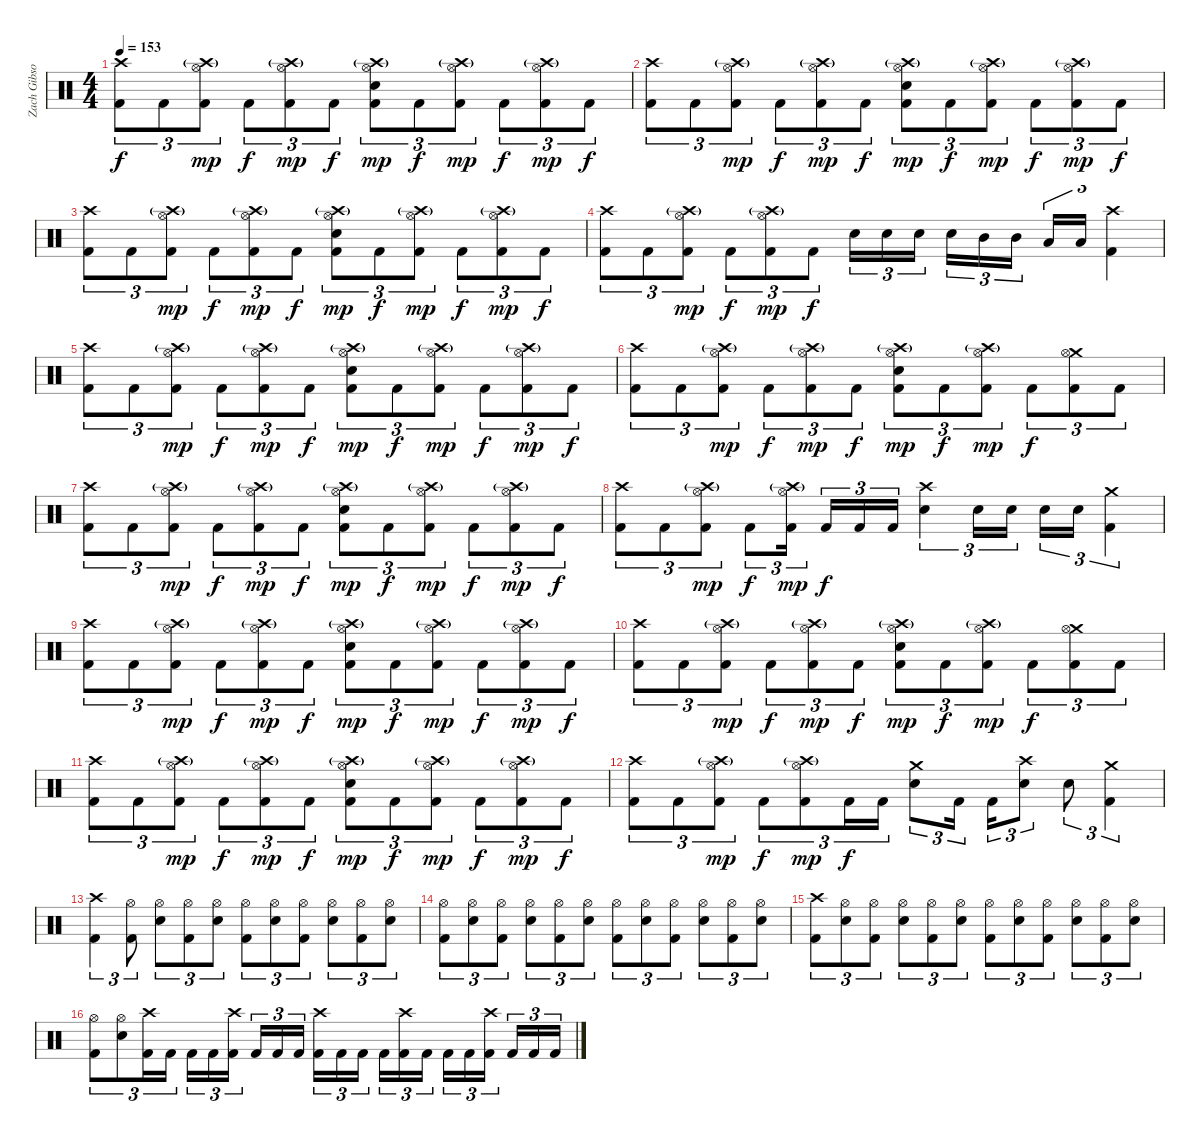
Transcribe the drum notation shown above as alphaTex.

\track ("Zach Gibson (Drums)" "Zach Gibso") {instrument percussion}
\staff {score}
\articulation defaults
\ts (4 4)
\tempo 153
\clef neutral
\ks c
("Crash high (hit)" "Kick (hit) 2").8{tu (3 2) dy f} "Kick (hit) 2".8{tu (3 2)} ("Crash high (hit)"{g} "Hi-Hat (open)" "Kick (hit) 2").8{tu (3 2) dy mp} "Kick (hit) 2".8{tu (3 2) dy f} ("Crash high (hit)"{g} "Hi-Hat (open)" "Kick (hit) 2").8{tu (3 2) dy mp} "Kick (hit) 2".8{tu (3 2) dy f} ("Crash high (hit)"{g} "Snare (hit) 2" "Hi-Hat (open)" "Kick (hit) 2").8{tu (3 2) dy mp} "Kick (hit) 2".8{tu (3 2) dy f} ("Crash high (hit)"{g} "Hi-Hat (open)" "Kick (hit) 2").8{tu (3 2) dy mp} "Kick (hit) 2".8{tu (3 2) dy f} ("Crash high (hit)"{g} "Hi-Hat (open)" "Kick (hit) 2").8{tu (3 2) dy mp} "Kick (hit) 2".8{tu (3 2) dy f} |
("Crash high (hit)" "Kick (hit) 2").8{tu (3 2)} "Kick (hit) 2".8{tu (3 2)} ("Crash high (hit)"{g} "Hi-Hat (open)" "Kick (hit) 2").8{tu (3 2) dy mp} "Kick (hit) 2".8{tu (3 2) dy f} ("Crash high (hit)"{g} "Hi-Hat (open)" "Kick (hit) 2").8{tu (3 2) dy mp} "Kick (hit) 2".8{tu (3 2) dy f} ("Crash high (hit)"{g} "Snare (hit) 2" "Hi-Hat (open)" "Kick (hit) 2").8{tu (3 2) dy mp} "Kick (hit) 2".8{tu (3 2) dy f} ("Crash high (hit)"{g} "Hi-Hat (open)" "Kick (hit) 2").8{tu (3 2) dy mp} "Kick (hit) 2".8{tu (3 2) dy f} ("Crash high (hit)"{g} "Hi-Hat (open)" "Kick (hit) 2").8{tu (3 2) dy mp} "Kick (hit) 2".8{tu (3 2) dy f} |
("Crash high (hit)" "Kick (hit) 2").8{tu (3 2)} "Kick (hit) 2".8{tu (3 2)} ("Crash high (hit)"{g} "Hi-Hat (open)" "Kick (hit) 2").8{tu (3 2) dy mp} "Kick (hit) 2".8{tu (3 2) dy f} ("Crash high (hit)"{g} "Hi-Hat (open)" "Kick (hit) 2").8{tu (3 2) dy mp} "Kick (hit) 2".8{tu (3 2) dy f} ("Crash high (hit)"{g} "Snare (hit) 2" "Hi-Hat (open)" "Kick (hit) 2").8{tu (3 2) dy mp} "Kick (hit) 2".8{tu (3 2) dy f} ("Crash high (hit)"{g} "Hi-Hat (open)" "Kick (hit) 2").8{tu (3 2) dy mp} "Kick (hit) 2".8{tu (3 2) dy f} ("Crash high (hit)"{g} "Hi-Hat (open)" "Kick (hit) 2").8{tu (3 2) dy mp} "Kick (hit) 2".8{tu (3 2) dy f} |
("Crash high (hit)" "Kick (hit) 2").8{tu (3 2)} "Kick (hit) 2".8{tu (3 2)} ("Crash high (hit)"{g} "Hi-Hat (open)" "Kick (hit) 2").8{tu (3 2) dy mp} "Kick (hit) 2".8{tu (3 2) dy f} ("Crash high (hit)"{g} "Hi-Hat (open)" "Kick (hit) 2").8{tu (3 2) dy mp} "Kick (hit) 2".8{tu (3 2) dy f} "Snare (hit) 2".16{tu (3 2)} "Snare (hit) 2".16{tu (3 2)} "Snare (hit) 2".16{tu (3 2)} "Snare (hit) 2".16{tu (3 2)} "Mid Tom (hit)".16{tu (3 2)} "Mid Tom (hit)".16{tu (3 2)} "Low Tom (hit)".16{tu (3 2)} "Low Tom (hit)".16{tu (3 2)} ("Crash high (hit)" "Kick (hit) 2").4{tu (3 2)} |
("Crash high (hit)" "Kick (hit) 2").8{tu (3 2)} "Kick (hit) 2".8{tu (3 2)} ("Crash high (hit)"{g} "Hi-Hat (open)" "Kick (hit) 2").8{tu (3 2) dy mp} "Kick (hit) 2".8{tu (3 2) dy f} ("Crash high (hit)"{g} "Hi-Hat (open)" "Kick (hit) 2").8{tu (3 2) dy mp} "Kick (hit) 2".8{tu (3 2) dy f} ("Crash high (hit)"{g} "Snare (hit) 2" "Hi-Hat (open)" "Kick (hit) 2").8{tu (3 2) dy mp} "Kick (hit) 2".8{tu (3 2) dy f} ("Crash high (hit)"{g} "Hi-Hat (open)" "Kick (hit) 2").8{tu (3 2) dy mp} "Kick (hit) 2".8{tu (3 2) dy f} ("Crash high (hit)"{g} "Hi-Hat (open)" "Kick (hit) 2").8{tu (3 2) dy mp} "Kick (hit) 2".8{tu (3 2) dy f} |
("Crash high (hit)" "Kick (hit) 2").8{tu (3 2)} "Kick (hit) 2".8{tu (3 2)} ("Crash high (hit)"{g} "Hi-Hat (open)" "Kick (hit) 2").8{tu (3 2) dy mp} "Kick (hit) 2".8{tu (3 2) dy f} ("Crash high (hit)"{g} "Hi-Hat (open)" "Kick (hit) 2").8{tu (3 2) dy mp} "Kick (hit) 2".8{tu (3 2) dy f} ("Crash high (hit)"{g} "Snare (hit) 2" "Hi-Hat (open)" "Kick (hit) 2").8{tu (3 2) dy mp} "Kick (hit) 2".8{tu (3 2) dy f} ("Crash high (hit)"{g} "Hi-Hat (open)" "Kick (hit) 2").8{tu (3 2) dy mp} "Kick (hit) 2".8{tu (3 2) dy f} ("Crash medium (hit)" "Hi-Hat (open)" "Kick (hit) 2").8{tu (3 2)} "Kick (hit) 2".8{tu (3 2)} |
("Crash high (hit)" "Kick (hit) 2").8{tu (3 2)} "Kick (hit) 2".8{tu (3 2)} ("Crash high (hit)"{g} "Hi-Hat (open)" "Kick (hit) 2").8{tu (3 2) dy mp} "Kick (hit) 2".8{tu (3 2) dy f} ("Crash high (hit)"{g} "Hi-Hat (open)" "Kick (hit) 2").8{tu (3 2) dy mp} "Kick (hit) 2".8{tu (3 2) dy f} ("Crash high (hit)"{g} "Snare (hit) 2" "Hi-Hat (open)" "Kick (hit) 2").8{tu (3 2) dy mp} "Kick (hit) 2".8{tu (3 2) dy f} ("Crash high (hit)"{g} "Hi-Hat (open)" "Kick (hit) 2").8{tu (3 2) dy mp} "Kick (hit) 2".8{tu (3 2) dy f} ("Crash high (hit)"{g} "Hi-Hat (open)" "Kick (hit) 2").8{tu (3 2) dy mp} "Kick (hit) 2".8{tu (3 2) dy f} |
("Crash high (hit)" "Kick (hit) 2").8{tu (3 2)} "Kick (hit) 2".8{tu (3 2)} ("Crash high (hit)"{g} "Hi-Hat (open)" "Kick (hit) 2").8{tu (3 2) dy mp} "Kick (hit) 2".8{tu (3 2) dy f} ("Crash high (hit)"{g} "Hi-Hat (open)" "Kick (hit) 2").16{tu (3 2) dy mp} "Kick (hit) 2".16{tu (3 2) dy f} "Kick (hit) 2".16{tu (3 2)} "Kick (hit) 2".16{tu (3 2)} ("Crash high (hit)" "Snare (hit) 2").4{tu (3 2)} "Snare (hit) 2".16{tu (3 2)} "Snare (hit) 2".16{tu (3 2)} "Snare (hit) 2".16{tu (3 2)} "Snare (hit) 2".16{tu (3 2)} ("Crash medium (hit)" "Kick (hit) 2").4{tu (3 2)} |
("Crash high (hit)" "Kick (hit) 2").8{tu (3 2)} "Kick (hit) 2".8{tu (3 2)} ("Crash high (hit)"{g} "Hi-Hat (open)" "Kick (hit) 2").8{tu (3 2) dy mp} "Kick (hit) 2".8{tu (3 2) dy f} ("Crash high (hit)"{g} "Hi-Hat (open)" "Kick (hit) 2").8{tu (3 2) dy mp} "Kick (hit) 2".8{tu (3 2) dy f} ("Crash high (hit)"{g} "Snare (hit) 2" "Hi-Hat (open)" "Kick (hit) 2").8{tu (3 2) dy mp} "Kick (hit) 2".8{tu (3 2) dy f} ("Crash high (hit)"{g} "Hi-Hat (open)" "Kick (hit) 2").8{tu (3 2) dy mp} "Kick (hit) 2".8{tu (3 2) dy f} ("Crash high (hit)"{g} "Hi-Hat (open)" "Kick (hit) 2").8{tu (3 2) dy mp} "Kick (hit) 2".8{tu (3 2) dy f} |
("Crash high (hit)" "Kick (hit) 2").8{tu (3 2)} "Kick (hit) 2".8{tu (3 2)} ("Crash high (hit)"{g} "Hi-Hat (open)" "Kick (hit) 2").8{tu (3 2) dy mp} "Kick (hit) 2".8{tu (3 2) dy f} ("Crash high (hit)"{g} "Hi-Hat (open)" "Kick (hit) 2").8{tu (3 2) dy mp} "Kick (hit) 2".8{tu (3 2) dy f} ("Crash high (hit)"{g} "Snare (hit) 2" "Hi-Hat (open)" "Kick (hit) 2").8{tu (3 2) dy mp} "Kick (hit) 2".8{tu (3 2) dy f} ("Crash high (hit)"{g} "Hi-Hat (open)" "Kick (hit) 2").8{tu (3 2) dy mp} "Kick (hit) 2".8{tu (3 2) dy f} ("Crash medium (hit)" "Hi-Hat (open)" "Kick (hit) 2").8{tu (3 2)} "Kick (hit) 2".8{tu (3 2)} |
("Crash high (hit)" "Kick (hit) 2").8{tu (3 2)} "Kick (hit) 2".8{tu (3 2)} ("Crash high (hit)"{g} "Hi-Hat (open)" "Kick (hit) 2").8{tu (3 2) dy mp} "Kick (hit) 2".8{tu (3 2) dy f} ("Crash high (hit)"{g} "Hi-Hat (open)" "Kick (hit) 2").8{tu (3 2) dy mp} "Kick (hit) 2".8{tu (3 2) dy f} ("Crash high (hit)"{g} "Snare (hit) 2" "Hi-Hat (open)" "Kick (hit) 2").8{tu (3 2) dy mp} "Kick (hit) 2".8{tu (3 2) dy f} ("Crash high (hit)"{g} "Hi-Hat (open)" "Kick (hit) 2").8{tu (3 2) dy mp} "Kick (hit) 2".8{tu (3 2) dy f} ("Crash high (hit)"{g} "Hi-Hat (open)" "Kick (hit) 2").8{tu (3 2) dy mp} "Kick (hit) 2".8{tu (3 2) dy f} |
("Crash high (hit)" "Kick (hit) 2").8{tu (3 2)} "Kick (hit) 2".8{tu (3 2)} ("Crash high (hit)"{g} "Hi-Hat (open)" "Kick (hit) 2").8{tu (3 2) dy mp} "Kick (hit) 2".8{tu (3 2) dy f} ("Crash high (hit)"{g} "Hi-Hat (open)" "Kick (hit) 2").8{tu (3 2) dy mp} "Kick (hit) 2".16{tu (3 2) dy f} "Kick (hit) 2".16{tu (3 2)} ("Crash medium (hit)" "Snare (hit) 2").8{tu (3 2)} "Kick (hit) 2".16{tu (3 2)} "Kick (hit) 2".16{tu (3 2)} ("Crash high (hit)" "Snare (hit) 2").8{tu (3 2)} "Snare (hit) 2".8{tu (3 2)} ("Crash medium (hit)" "Kick (hit) 2").4{tu (3 2)} |
("Crash high (hit)" "Kick (hit) 2").4{tu (3 2)} ("Hi-Hat (open)" "Kick (hit) 2").8{tu (3 2)} ("Hi-Hat (open)" "Snare (hit) 2").8{tu (3 2)} ("Hi-Hat (open)" "Kick (hit) 2").8{tu (3 2)} ("Hi-Hat (open)" "Snare (hit) 2").8{tu (3 2)} ("Hi-Hat (open)" "Kick (hit) 2").8{tu (3 2)} ("Hi-Hat (open)" "Snare (hit) 2").8{tu (3 2)} ("Hi-Hat (open)" "Kick (hit) 2").8{tu (3 2)} ("Hi-Hat (open)" "Snare (hit) 2").8{tu (3 2)} ("Hi-Hat (open)" "Kick (hit) 2").8{tu (3 2)} ("Hi-Hat (open)" "Snare (hit) 2").8{tu (3 2)} |
("Hi-Hat (open)" "Kick (hit) 2").8{tu (3 2)} ("Hi-Hat (open)" "Snare (hit) 2").8{tu (3 2)} ("Hi-Hat (open)" "Kick (hit) 2").8{tu (3 2)} ("Hi-Hat (open)" "Snare (hit) 2").8{tu (3 2)} ("Hi-Hat (open)" "Kick (hit) 2").8{tu (3 2)} ("Hi-Hat (open)" "Snare (hit) 2").8{tu (3 2)} ("Hi-Hat (open)" "Kick (hit) 2").8{tu (3 2)} ("Hi-Hat (open)" "Snare (hit) 2").8{tu (3 2)} ("Hi-Hat (open)" "Kick (hit) 2").8{tu (3 2)} ("Hi-Hat (open)" "Snare (hit) 2").8{tu (3 2)} ("Hi-Hat (open)" "Kick (hit) 2").8{tu (3 2)} ("Hi-Hat (open)" "Snare (hit) 2").8{tu (3 2)} |
("Crash high (hit)" "Kick (hit) 2").8{tu (3 2)} ("Hi-Hat (open)" "Snare (hit) 2").8{tu (3 2)} ("Hi-Hat (open)" "Kick (hit) 2").8{tu (3 2)} ("Hi-Hat (open)" "Snare (hit) 2").8{tu (3 2)} ("Hi-Hat (open)" "Kick (hit) 2").8{tu (3 2)} ("Hi-Hat (open)" "Snare (hit) 2").8{tu (3 2)} ("Hi-Hat (open)" "Kick (hit) 2").8{tu (3 2)} ("Hi-Hat (open)" "Snare (hit) 2").8{tu (3 2)} ("Hi-Hat (open)" "Kick (hit) 2").8{tu (3 2)} ("Hi-Hat (open)" "Snare (hit) 2").8{tu (3 2)} ("Hi-Hat (open)" "Kick (hit) 2").8{tu (3 2)} ("Hi-Hat (open)" "Snare (hit) 2").8{tu (3 2)} |
("Hi-Hat (open)" "Kick (hit) 2").8{tu (3 2)} ("Hi-Hat (open)" "Snare (hit) 2").8{tu (3 2)} ("Crash high (hit)" "Kick (hit) 2").16{tu (3 2)} "Kick (hit) 2".16{tu (3 2)} "Kick (hit) 2".16{tu (3 2)} "Kick (hit) 2".16{tu (3 2)} ("Crash high (hit)" "Kick (hit) 2").16{tu (3 2)} "Kick (hit) 2".16{tu (3 2)} "Kick (hit) 2".16{tu (3 2)} "Kick (hit) 2".16{tu (3 2)} ("Crash high (hit)" "Kick (hit) 2").16{tu (3 2)} "Kick (hit) 2".16{tu (3 2)} "Kick (hit) 2".16{tu (3 2)} "Kick (hit) 2".16{tu (3 2)} ("Crash high (hit)" "Kick (hit) 2").16{tu (3 2)} "Kick (hit) 2".16{tu (3 2)} "Kick (hit) 2".16{tu (3 2)} "Kick (hit) 2".16{tu (3 2)} ("Crash high (hit)" "Kick (hit) 2").16{tu (3 2)} "Kick (hit) 2".16{tu (3 2)} "Kick (hit) 2".16{tu (3 2)} "Kick (hit) 2".16{tu (3 2)}
